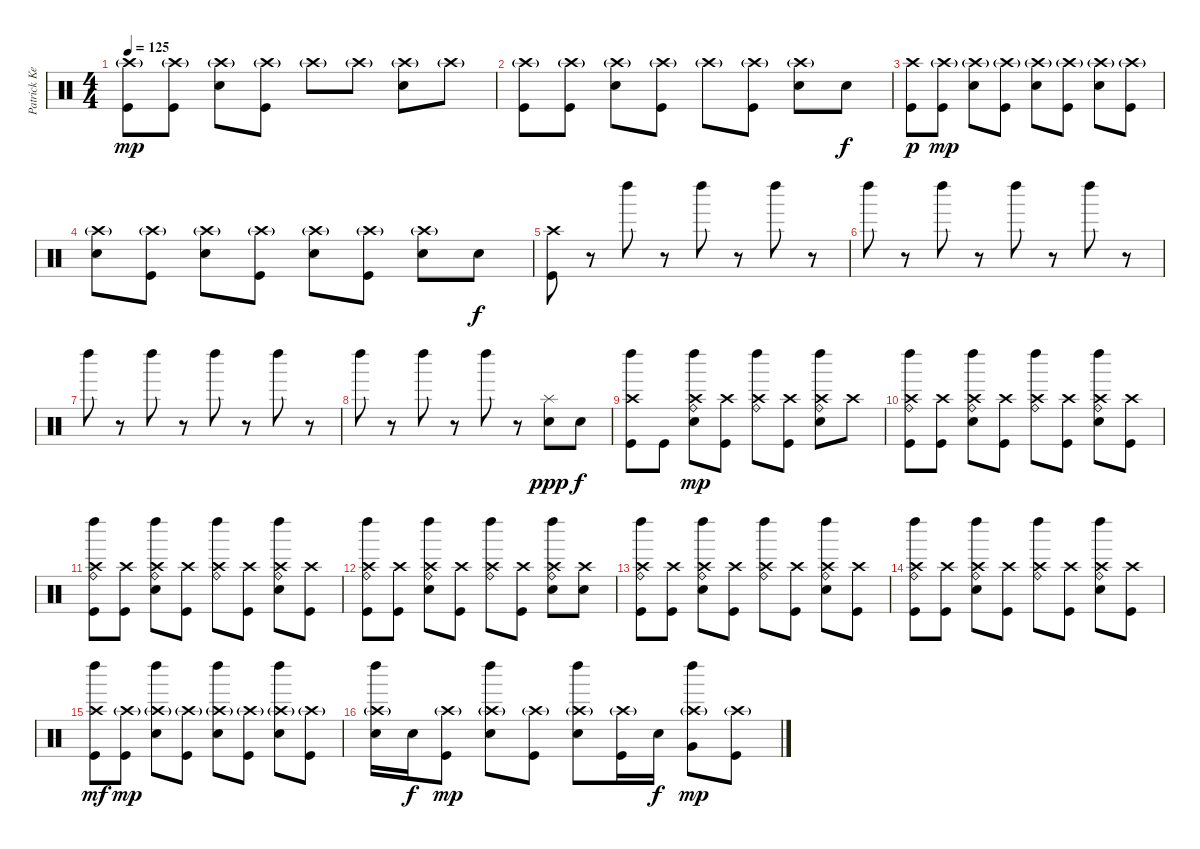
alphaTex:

\track ("Patrick Keeler" "Patrick Ke") {instrument percussion}
\staff {score}
\articulation defaults
\ts (4 4)
\tempo 125
\clef neutral
\ks c
("Crash high (hit)"{g} "Kick (hit)").8{dy mp} ("Crash high (hit)"{g} "Kick (hit)").8 ("Crash high (hit)"{g} "Electric Snare (hit)").8 ("Crash high (hit)"{g} "Kick (hit)").8 "Crash high (hit)"{g}.8 "Crash high (hit)"{g}.8 ("Crash high (hit)"{g} "Electric Snare (hit)").8 "Crash high (hit)"{g}.8 |
("Crash high (hit)"{g} "Kick (hit)").8 ("Crash high (hit)"{g} "Kick (hit)").8 ("Crash high (hit)"{g} "Electric Snare (hit)").8 ("Crash high (hit)"{g} "Kick (hit)").8 "Crash high (hit)"{g}.8 ("Crash high (hit)"{g} "Kick (hit)").8 ("Crash high (hit)"{g} "Electric Snare (hit)").8 "Electric Snare (hit)".8{dy f} |
("Crash high (hit)" "Kick (hit)").8{dy p} ("Crash high (hit)"{g} "Kick (hit)").8{dy mp} ("Crash high (hit)"{g} "Electric Snare (hit)").8 ("Crash high (hit)"{g} "Kick (hit)").8 ("Crash high (hit)"{g} "Electric Snare (hit)").8 ("Crash high (hit)"{g} "Kick (hit)").8 ("Crash high (hit)"{g} "Electric Snare (hit)").8 ("Crash high (hit)"{g} "Kick (hit)").8 |
("Crash high (hit)"{g} "Electric Snare (hit)").8 ("Crash high (hit)"{g} "Kick (hit)").8 ("Crash high (hit)"{g} "Electric Snare (hit)").8 ("Crash high (hit)"{g} "Kick (hit)").8 ("Crash high (hit)"{g} "Electric Snare (hit)").8 ("Crash high (hit)"{g} "Kick (hit)").8 ("Crash high (hit)"{g} "Electric Snare (hit)").8 "Electric Snare (hit)".8{dy f} |
("Crash high (hit)" "Kick (hit)").8 r.8 "Left Maraca (hit)".8 r.8 "Left Maraca (hit)".8 r.8 "Left Maraca (hit)".8 r.8 |
"Left Maraca (hit)".8 r.8 "Left Maraca (hit)".8 r.8 "Left Maraca (hit)".8 r.8 "Left Maraca (hit)".8 r.8 |
"Left Maraca (hit)".8 r.8 "Left Maraca (hit)".8 r.8 "Left Maraca (hit)".8 r.8 "Left Maraca (hit)".8 r.8 |
"Left Maraca (hit)".8 r.8 "Left Maraca (hit)".8 r.8 "Left Maraca (hit)".8 r.8 ("Electric Snare (hit)" "Splash (hit)").8{dy ppp} "Electric Snare (hit)".8{dy f} |
("Crash high (hit)" "Left Maraca (hit)" "Kick (hit)").8 "Kick (hit)".8 ("Crash high (hit)" "Ride (bell)" "Left Maraca (hit)" "Electric Snare (hit)").8{dy mp} ("Crash high (hit)" "Kick (hit)").8 ("Crash high (hit)" "Ride (bell)" "Left Maraca (hit)").8 ("Crash high (hit)" "Kick (hit)").8 ("Crash high (hit)" "Ride (bell)" "Left Maraca (hit)" "Electric Snare (hit)").8 "Crash high (hit)".8 |
("Crash high (hit)" "Ride (bell)" "Left Maraca (hit)" "Kick (hit)").8 ("Crash high (hit)" "Kick (hit)").8 ("Crash high (hit)" "Ride (bell)" "Left Maraca (hit)" "Electric Snare (hit)").8 ("Crash high (hit)" "Kick (hit)").8 ("Crash high (hit)" "Ride (bell)" "Left Maraca (hit)").8 ("Crash high (hit)" "Kick (hit)").8 ("Crash high (hit)" "Ride (bell)" "Left Maraca (hit)" "Electric Snare (hit)").8 ("Crash high (hit)" "Kick (hit)").8 |
("Crash high (hit)" "Ride (bell)" "Left Maraca (hit)" "Kick (hit)").8 ("Crash high (hit)" "Kick (hit)").8 ("Crash high (hit)" "Ride (bell)" "Left Maraca (hit)" "Electric Snare (hit)").8 ("Crash high (hit)" "Kick (hit)").8 ("Crash high (hit)" "Ride (bell)" "Left Maraca (hit)").8 ("Crash high (hit)" "Kick (hit)").8 ("Crash high (hit)" "Ride (bell)" "Left Maraca (hit)" "Electric Snare (hit)").8 ("Crash high (hit)" "Kick (hit)").8 |
("Crash high (hit)" "Ride (bell)" "Left Maraca (hit)" "Kick (hit)").8 ("Crash high (hit)" "Kick (hit)").8 ("Crash high (hit)" "Ride (bell)" "Left Maraca (hit)" "Electric Snare (hit)").8 ("Crash high (hit)" "Kick (hit)").8 ("Crash high (hit)" "Ride (bell)" "Left Maraca (hit)").8 ("Crash high (hit)" "Kick (hit)").8 ("Crash high (hit)" "Ride (bell)" "Left Maraca (hit)" "Electric Snare (hit)").8 ("Crash high (hit)" "Electric Snare (hit)").8 |
("Crash high (hit)" "Ride (bell)" "Left Maraca (hit)" "Kick (hit)").8 ("Crash high (hit)" "Kick (hit)").8 ("Crash high (hit)" "Ride (bell)" "Left Maraca (hit)" "Electric Snare (hit)").8 ("Crash high (hit)" "Kick (hit)").8 ("Crash high (hit)" "Ride (bell)" "Left Maraca (hit)").8 ("Crash high (hit)" "Kick (hit)").8 ("Crash high (hit)" "Ride (bell)" "Left Maraca (hit)" "Electric Snare (hit)").8 ("Crash high (hit)" "Kick (hit)").8 |
("Crash high (hit)" "Ride (bell)" "Left Maraca (hit)" "Kick (hit)").8 ("Crash high (hit)" "Kick (hit)").8 ("Crash high (hit)" "Ride (bell)" "Left Maraca (hit)" "Electric Snare (hit)").8 ("Crash high (hit)" "Kick (hit)").8 ("Crash high (hit)" "Ride (bell)" "Left Maraca (hit)").8 ("Crash high (hit)" "Kick (hit)").8 ("Crash high (hit)" "Ride (bell)" "Left Maraca (hit)" "Electric Snare (hit)").8 ("Crash high (hit)" "Kick (hit)").8 |
("Crash high (hit)" "Left Maraca (hit)" "Kick (hit)").8{dy mf} ("Crash high (hit)"{g} "Kick (hit)").8{dy mp} ("Crash high (hit)"{g} "Left Maraca (hit)" "Electric Snare (hit)").8 ("Crash high (hit)"{g} "Kick (hit)").8 ("Crash high (hit)"{g} "Left Maraca (hit)" "Electric Snare (hit)").8 ("Crash high (hit)"{g} "Kick (hit)").8 ("Crash high (hit)"{g} "Left Maraca (hit)" "Electric Snare (hit)").8 ("Crash high (hit)"{g} "Kick (hit)").8 |
("Crash high (hit)"{g} "Left Maraca (hit)" "Electric Snare (hit)").16 "Electric Snare (hit)".16{dy f} ("Crash high (hit)"{g} "Kick (hit)").8{dy mp} ("Crash high (hit)"{g} "Left Maraca (hit)" "Electric Snare (hit)").8 ("Crash high (hit)"{g} "Kick (hit)").8 ("Crash high (hit)"{g} "Left Maraca (hit)" "Electric Snare (hit)").8 ("Crash high (hit)"{g} "Kick (hit)").16 "Electric Snare (hit)".16{dy f} ("Crash high (hit)"{g} "Left Maraca (hit)" "Very Low Tom (hit)").8{dy mp} ("Crash high (hit)"{g} "Kick (hit)").8
